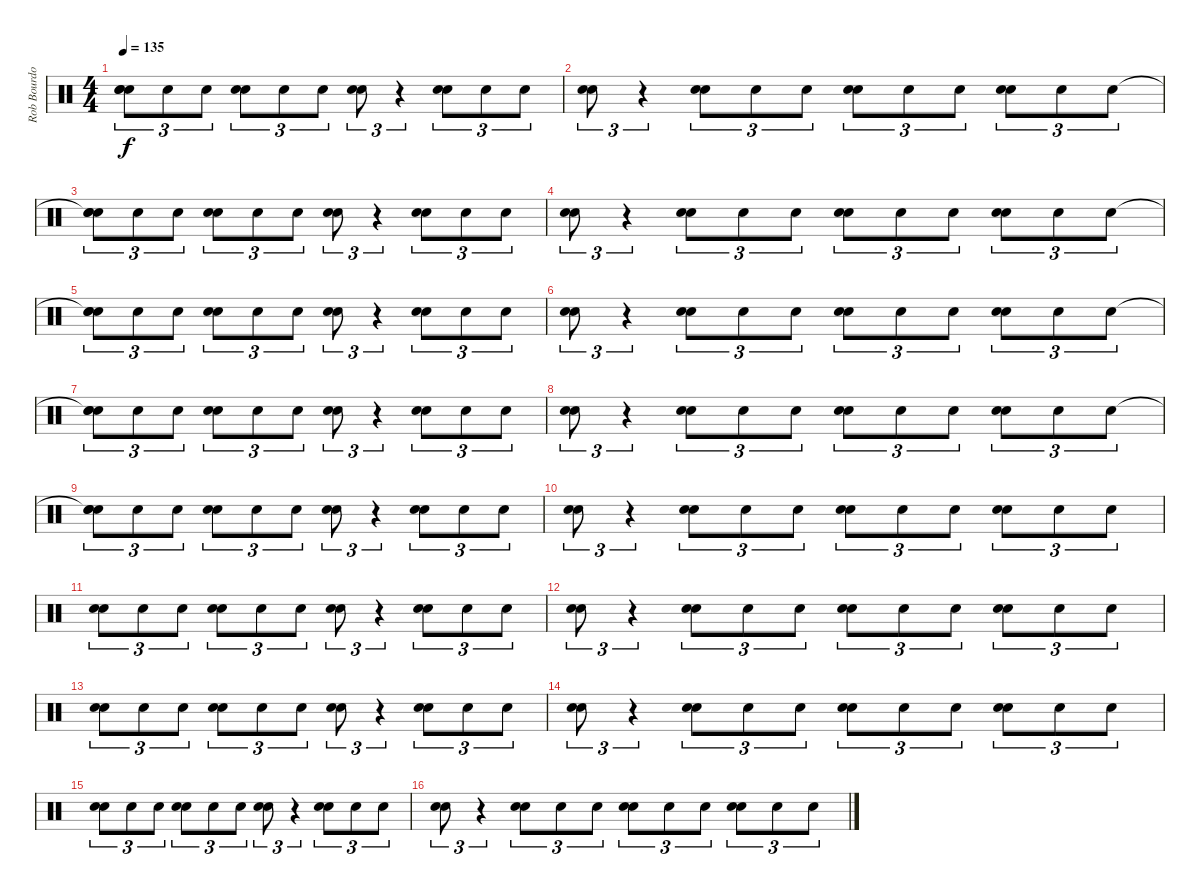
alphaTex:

\track ("Rob Bourdon [Drums]" "Rob Bourdo") {instrument percussion bank 5}
\staff {score}
\articulation defaults
\ts (4 4)
\tempo 135
\clef neutral
\ks c
("Snare (hit)"{t} "Hand Clap (hit)" "Electric Snare (hit)").8{tu (3 2) dy f} "Electric Snare (hit)".8{tu (3 2)} "Electric Snare (hit)".8{tu (3 2)} ("Hand Clap (hit)" "Electric Snare (hit)").8{tu (3 2)} "Electric Snare (hit)".8{tu (3 2)} "Electric Snare (hit)".8{tu (3 2)} ("Hand Clap (hit)" "Electric Snare (hit)").8{tu (3 2)} r.4{tu (3 2)} ("Hand Clap (hit)" "Electric Snare (hit)").8{tu (3 2)} "Electric Snare (hit)".8{tu (3 2)} "Electric Snare (hit)".8{tu (3 2)} |
("Hand Clap (hit)" "Electric Snare (hit)").8{tu (3 2)} r.4{tu (3 2)} ("Hand Clap (hit)" "Electric Snare (hit)").8{tu (3 2)} "Electric Snare (hit)".8{tu (3 2)} "Electric Snare (hit)".8{tu (3 2)} ("Hand Clap (hit)" "Electric Snare (hit)").8{tu (3 2)} "Electric Snare (hit)".8{tu (3 2)} "Electric Snare (hit)".8{tu (3 2)} ("Hand Clap (hit)" "Electric Snare (hit)").8{tu (3 2)} "Electric Snare (hit)".8{tu (3 2)} "Electric Snare (hit)".8{tu (3 2)} |
("Snare (hit)"{t} "Hand Clap (hit)" "Electric Snare (hit)").8{tu (3 2)} "Electric Snare (hit)".8{tu (3 2)} "Electric Snare (hit)".8{tu (3 2)} ("Hand Clap (hit)" "Electric Snare (hit)").8{tu (3 2)} "Electric Snare (hit)".8{tu (3 2)} "Electric Snare (hit)".8{tu (3 2)} ("Hand Clap (hit)" "Electric Snare (hit)").8{tu (3 2)} r.4{tu (3 2)} ("Hand Clap (hit)" "Electric Snare (hit)").8{tu (3 2)} "Electric Snare (hit)".8{tu (3 2)} "Electric Snare (hit)".8{tu (3 2)} |
("Hand Clap (hit)" "Electric Snare (hit)").8{tu (3 2)} r.4{tu (3 2)} ("Hand Clap (hit)" "Electric Snare (hit)").8{tu (3 2)} "Electric Snare (hit)".8{tu (3 2)} "Electric Snare (hit)".8{tu (3 2)} ("Hand Clap (hit)" "Electric Snare (hit)").8{tu (3 2)} "Electric Snare (hit)".8{tu (3 2)} "Electric Snare (hit)".8{tu (3 2)} ("Hand Clap (hit)" "Electric Snare (hit)").8{tu (3 2)} "Electric Snare (hit)".8{tu (3 2)} "Electric Snare (hit)".8{tu (3 2)} |
("Snare (hit)"{t} "Hand Clap (hit)" "Electric Snare (hit)").8{tu (3 2)} "Electric Snare (hit)".8{tu (3 2)} "Electric Snare (hit)".8{tu (3 2)} ("Hand Clap (hit)" "Electric Snare (hit)").8{tu (3 2)} "Electric Snare (hit)".8{tu (3 2)} "Electric Snare (hit)".8{tu (3 2)} ("Hand Clap (hit)" "Electric Snare (hit)").8{tu (3 2)} r.4{tu (3 2)} ("Hand Clap (hit)" "Electric Snare (hit)").8{tu (3 2)} "Electric Snare (hit)".8{tu (3 2)} "Electric Snare (hit)".8{tu (3 2)} |
("Hand Clap (hit)" "Electric Snare (hit)").8{tu (3 2)} r.4{tu (3 2)} ("Hand Clap (hit)" "Electric Snare (hit)").8{tu (3 2)} "Electric Snare (hit)".8{tu (3 2)} "Electric Snare (hit)".8{tu (3 2)} ("Hand Clap (hit)" "Electric Snare (hit)").8{tu (3 2)} "Electric Snare (hit)".8{tu (3 2)} "Electric Snare (hit)".8{tu (3 2)} ("Hand Clap (hit)" "Electric Snare (hit)").8{tu (3 2)} "Electric Snare (hit)".8{tu (3 2)} "Electric Snare (hit)".8{tu (3 2)} |
("Snare (hit)"{t} "Hand Clap (hit)" "Electric Snare (hit)").8{tu (3 2)} "Electric Snare (hit)".8{tu (3 2)} "Electric Snare (hit)".8{tu (3 2)} ("Hand Clap (hit)" "Electric Snare (hit)").8{tu (3 2)} "Electric Snare (hit)".8{tu (3 2)} "Electric Snare (hit)".8{tu (3 2)} ("Hand Clap (hit)" "Electric Snare (hit)").8{tu (3 2)} r.4{tu (3 2)} ("Hand Clap (hit)" "Electric Snare (hit)").8{tu (3 2)} "Electric Snare (hit)".8{tu (3 2)} "Electric Snare (hit)".8{tu (3 2)} |
("Hand Clap (hit)" "Electric Snare (hit)").8{tu (3 2)} r.4{tu (3 2)} ("Hand Clap (hit)" "Electric Snare (hit)").8{tu (3 2)} "Electric Snare (hit)".8{tu (3 2)} "Electric Snare (hit)".8{tu (3 2)} ("Hand Clap (hit)" "Electric Snare (hit)").8{tu (3 2)} "Electric Snare (hit)".8{tu (3 2)} "Electric Snare (hit)".8{tu (3 2)} ("Hand Clap (hit)" "Electric Snare (hit)").8{tu (3 2)} "Electric Snare (hit)".8{tu (3 2)} "Electric Snare (hit)".8{tu (3 2)} |
("Snare (hit)"{t} "Hand Clap (hit)" "Electric Snare (hit)").8{tu (3 2)} "Electric Snare (hit)".8{tu (3 2)} "Electric Snare (hit)".8{tu (3 2)} ("Hand Clap (hit)" "Electric Snare (hit)").8{tu (3 2)} "Electric Snare (hit)".8{tu (3 2)} "Electric Snare (hit)".8{tu (3 2)} ("Hand Clap (hit)" "Electric Snare (hit)").8{tu (3 2)} r.4{tu (3 2)} ("Hand Clap (hit)" "Electric Snare (hit)").8{tu (3 2)} "Electric Snare (hit)".8{tu (3 2)} "Electric Snare (hit)".8{tu (3 2)} |
("Hand Clap (hit)" "Electric Snare (hit)").8{tu (3 2)} r.4{tu (3 2)} ("Hand Clap (hit)" "Electric Snare (hit)").8{tu (3 2)} "Electric Snare (hit)".8{tu (3 2)} "Electric Snare (hit)".8{tu (3 2)} ("Hand Clap (hit)" "Electric Snare (hit)").8{tu (3 2)} "Electric Snare (hit)".8{tu (3 2)} "Electric Snare (hit)".8{tu (3 2)} ("Hand Clap (hit)" "Electric Snare (hit)").8{tu (3 2)} "Electric Snare (hit)".8{tu (3 2)} "Electric Snare (hit)".8{tu (3 2)} |
("Hand Clap (hit)" "Electric Snare (hit)").8{tu (3 2)} "Electric Snare (hit)".8{tu (3 2)} "Electric Snare (hit)".8{tu (3 2)} ("Hand Clap (hit)" "Electric Snare (hit)").8{tu (3 2)} "Electric Snare (hit)".8{tu (3 2)} "Electric Snare (hit)".8{tu (3 2)} ("Hand Clap (hit)" "Electric Snare (hit)").8{tu (3 2)} r.4{tu (3 2)} ("Hand Clap (hit)" "Electric Snare (hit)").8{tu (3 2)} "Electric Snare (hit)".8{tu (3 2)} "Electric Snare (hit)".8{tu (3 2)} |
("Hand Clap (hit)" "Electric Snare (hit)").8{tu (3 2)} r.4{tu (3 2)} ("Hand Clap (hit)" "Electric Snare (hit)").8{tu (3 2)} "Electric Snare (hit)".8{tu (3 2)} "Electric Snare (hit)".8{tu (3 2)} ("Hand Clap (hit)" "Electric Snare (hit)").8{tu (3 2)} "Electric Snare (hit)".8{tu (3 2)} "Electric Snare (hit)".8{tu (3 2)} ("Hand Clap (hit)" "Electric Snare (hit)").8{tu (3 2)} "Electric Snare (hit)".8{tu (3 2)} "Electric Snare (hit)".8{tu (3 2)} |
("Hand Clap (hit)" "Electric Snare (hit)").8{tu (3 2)} "Electric Snare (hit)".8{tu (3 2)} "Electric Snare (hit)".8{tu (3 2)} ("Hand Clap (hit)" "Electric Snare (hit)").8{tu (3 2)} "Electric Snare (hit)".8{tu (3 2)} "Electric Snare (hit)".8{tu (3 2)} ("Hand Clap (hit)" "Electric Snare (hit)").8{tu (3 2)} r.4{tu (3 2)} ("Hand Clap (hit)" "Electric Snare (hit)").8{tu (3 2)} "Electric Snare (hit)".8{tu (3 2)} "Electric Snare (hit)".8{tu (3 2)} |
("Hand Clap (hit)" "Electric Snare (hit)").8{tu (3 2)} r.4{tu (3 2)} ("Hand Clap (hit)" "Electric Snare (hit)").8{tu (3 2)} "Electric Snare (hit)".8{tu (3 2)} "Electric Snare (hit)".8{tu (3 2)} ("Hand Clap (hit)" "Electric Snare (hit)").8{tu (3 2)} "Electric Snare (hit)".8{tu (3 2)} "Electric Snare (hit)".8{tu (3 2)} ("Hand Clap (hit)" "Electric Snare (hit)").8{tu (3 2)} "Electric Snare (hit)".8{tu (3 2)} "Electric Snare (hit)".8{tu (3 2)} |
("Hand Clap (hit)" "Electric Snare (hit)").8{tu (3 2)} "Electric Snare (hit)".8{tu (3 2)} "Electric Snare (hit)".8{tu (3 2)} ("Hand Clap (hit)" "Electric Snare (hit)").8{tu (3 2)} "Electric Snare (hit)".8{tu (3 2)} "Electric Snare (hit)".8{tu (3 2)} ("Hand Clap (hit)" "Electric Snare (hit)").8{tu (3 2)} r.4{tu (3 2)} ("Hand Clap (hit)" "Electric Snare (hit)").8{tu (3 2)} "Electric Snare (hit)".8{tu (3 2)} "Electric Snare (hit)".8{tu (3 2)} |
("Hand Clap (hit)" "Electric Snare (hit)").8{tu (3 2)} r.4{tu (3 2)} ("Hand Clap (hit)" "Electric Snare (hit)").8{tu (3 2)} "Electric Snare (hit)".8{tu (3 2)} "Electric Snare (hit)".8{tu (3 2)} ("Hand Clap (hit)" "Electric Snare (hit)").8{tu (3 2)} "Electric Snare (hit)".8{tu (3 2)} "Electric Snare (hit)".8{tu (3 2)} ("Hand Clap (hit)" "Electric Snare (hit)").8{tu (3 2)} "Electric Snare (hit)".8{tu (3 2)} "Electric Snare (hit)".8{tu (3 2)}
